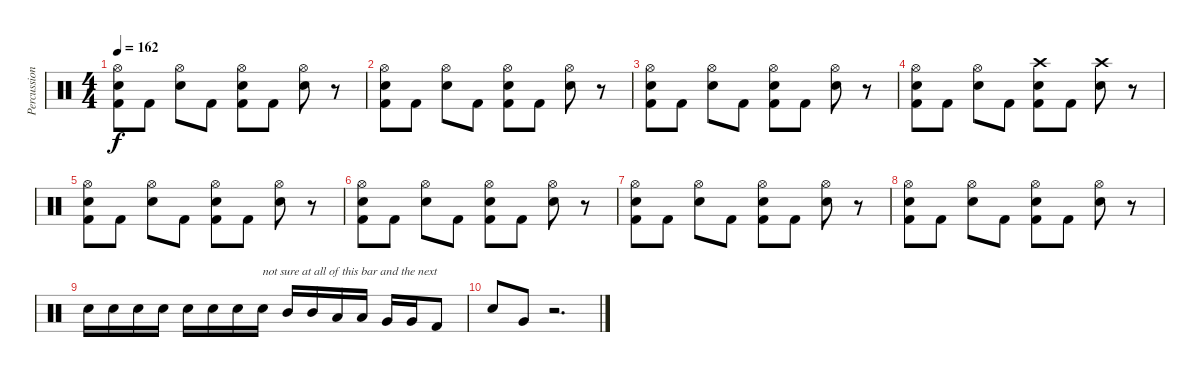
\track ("Percussion" "Percussion") {instrument percussion}
\staff {score}
\articulation defaults
\ts (4 4)
\tempo 162
\clef neutral
\ks c
("Kick (hit) 2" "Electric Snare (hit)" "Hi-Hat (open)").8{dy f} "Kick (hit) 2".8 ("Electric Snare (hit)" "Hi-Hat (open)").8 "Kick (hit) 2".8 ("Kick (hit) 2" "Electric Snare (hit)" "Hi-Hat (open)").8 "Kick (hit) 2".8 ("Electric Snare (hit)" "Hi-Hat (open)").8 r.8 |
("Kick (hit) 2" "Electric Snare (hit)" "Hi-Hat (open)").8 "Kick (hit) 2".8 ("Electric Snare (hit)" "Hi-Hat (open)").8 "Kick (hit) 2".8 ("Kick (hit) 2" "Electric Snare (hit)" "Hi-Hat (open)").8 "Kick (hit) 2".8 ("Electric Snare (hit)" "Hi-Hat (open)").8 r.8 |
("Kick (hit) 2" "Electric Snare (hit)" "Hi-Hat (open)").8 "Kick (hit) 2".8 ("Electric Snare (hit)" "Hi-Hat (open)").8 "Kick (hit) 2".8 ("Kick (hit) 2" "Electric Snare (hit)" "Hi-Hat (open)").8 "Kick (hit) 2".8 ("Electric Snare (hit)" "Hi-Hat (open)").8 r.8 |
("Kick (hit) 2" "Electric Snare (hit)" "Hi-Hat (open)").8 "Kick (hit) 2".8 ("Electric Snare (hit)" "Hi-Hat (open)").8 "Kick (hit) 2".8 ("Kick (hit) 2" "Electric Snare (hit)" "Crash high (hit)").8 "Kick (hit) 2".8 ("Electric Snare (hit)" "Crash high (hit)").8 r.8 |
("Kick (hit) 2" "Electric Snare (hit)" "Hi-Hat (open)").8 "Kick (hit) 2".8 ("Electric Snare (hit)" "Hi-Hat (open)").8 "Kick (hit) 2".8 ("Kick (hit) 2" "Electric Snare (hit)" "Hi-Hat (open)").8 "Kick (hit) 2".8 ("Electric Snare (hit)" "Hi-Hat (open)").8 r.8 |
("Kick (hit) 2" "Electric Snare (hit)" "Hi-Hat (open)").8 "Kick (hit) 2".8 ("Electric Snare (hit)" "Hi-Hat (open)").8 "Kick (hit) 2".8 ("Kick (hit) 2" "Electric Snare (hit)" "Hi-Hat (open)").8 "Kick (hit) 2".8 ("Electric Snare (hit)" "Hi-Hat (open)").8 r.8 |
("Kick (hit) 2" "Electric Snare (hit)" "Hi-Hat (open)").8 "Kick (hit) 2".8 ("Electric Snare (hit)" "Hi-Hat (open)").8 "Kick (hit) 2".8 ("Kick (hit) 2" "Electric Snare (hit)" "Hi-Hat (open)").8 "Kick (hit) 2".8 ("Electric Snare (hit)" "Hi-Hat (open)").8 r.8 |
("Kick (hit) 2" "Electric Snare (hit)" "Hi-Hat (open)").8 "Kick (hit) 2".8 ("Electric Snare (hit)" "Hi-Hat (open)").8 "Kick (hit) 2".8 ("Kick (hit) 2" "Electric Snare (hit)" "Hi-Hat (open)").8 "Kick (hit) 2".8 ("Electric Snare (hit)" "Hi-Hat (open)").8 r.8 |
"Electric Snare (hit)".16 "Electric Snare (hit)".16 "Electric Snare (hit)".16 "Electric Snare (hit)".16 "Electric Snare (hit)".16 "Electric Snare (hit)".16 "Electric Snare (hit)".16 "Electric Snare (hit)".16{txt "not sure at all of this bar and the next"} "Mid Tom (hit)".16 "Mid Tom (hit)".16 "Low Tom (hit)".16 "Low Tom (hit)".16 "Very Low Tom (hit)".16 "Very Low Tom (hit)".16 "Kick (hit) 2".8 |
"Electric Snare (hit)".8 "Very Low Tom (hit)".8 r.2{d}
